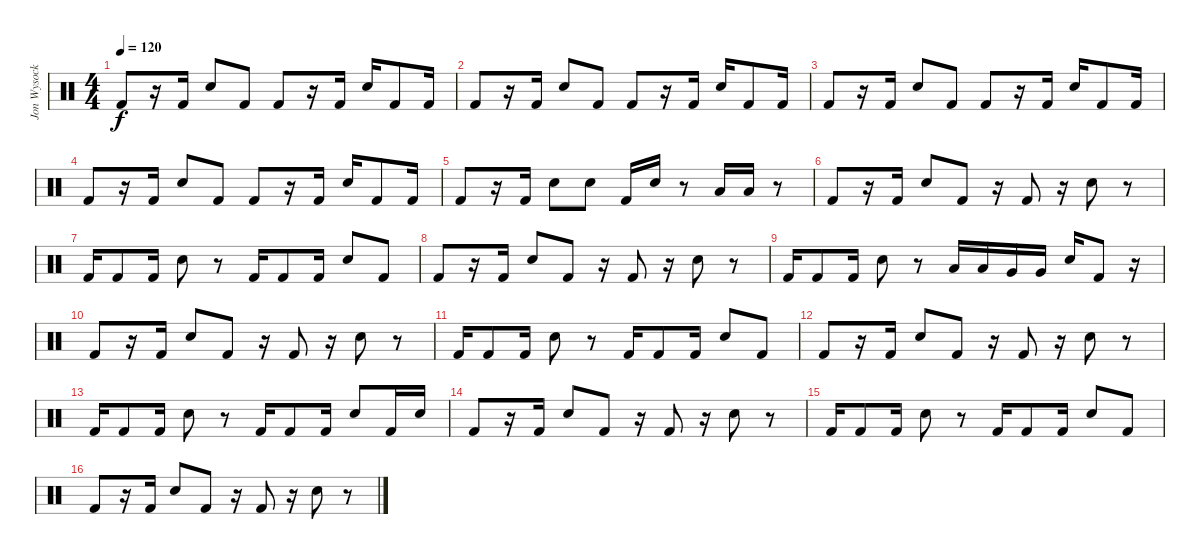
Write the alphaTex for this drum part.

\track ("Jon Wysocki" "Jon Wysock") {instrument percussion}
\staff {score}
\articulation defaults
\ts (4 4)
\tempo 120
\clef neutral
\ks c "Kick (hit) 2".8{dy f}
r.16 "Kick (hit) 2".16 "Electric Snare (hit)".8 "Kick (hit) 2".8 "Kick (hit) 2".8 r.16 "Kick (hit) 2".16 "Electric Snare (hit)".16 "Kick (hit) 2".8 "Kick (hit) 2".16 |
"Kick (hit) 2".8 r.16 "Kick (hit) 2".16 "Electric Snare (hit)".8 "Kick (hit) 2".8 "Kick (hit) 2".8 r.16 "Kick (hit) 2".16 "Electric Snare (hit)".16 "Kick (hit) 2".8 "Kick (hit) 2".16 |
"Kick (hit) 2".8 r.16 "Kick (hit) 2".16 "Electric Snare (hit)".8 "Kick (hit) 2".8 "Kick (hit) 2".8 r.16 "Kick (hit) 2".16 "Electric Snare (hit)".16 "Kick (hit) 2".8 "Kick (hit) 2".16 |
"Kick (hit) 2".8 r.16 "Kick (hit) 2".16 "Electric Snare (hit)".8 "Kick (hit) 2".8 "Kick (hit) 2".8 r.16 "Kick (hit) 2".16 "Electric Snare (hit)".16 "Kick (hit) 2".8 "Kick (hit) 2".16 |
"Kick (hit) 2".8 r.16 "Kick (hit) 2".16 "Electric Snare (hit)".8 "Electric Snare (hit)".8 "Kick (hit) 2".16 "Electric Snare (hit)".16 r.8 "Low Tom (hit)".16 "Low Tom (hit)".16 r.8 |
"Kick (hit) 2".8 r.16 "Kick (hit) 2".16 "Electric Snare (hit)".8 "Kick (hit) 2".8 r.16 "Kick (hit) 2".8 r.16 "Electric Snare (hit)".8 r.8 |
"Kick (hit) 2".16 "Kick (hit) 2".8 "Kick (hit) 2".16 "Electric Snare (hit)".8 r.8 "Kick (hit) 2".16 "Kick (hit) 2".8 "Kick (hit) 2".16 "Electric Snare (hit)".8 "Kick (hit) 2".8 |
"Kick (hit) 2".8 r.16 "Kick (hit) 2".16 "Electric Snare (hit)".8 "Kick (hit) 2".8 r.16 "Kick (hit) 2".8 r.16 "Electric Snare (hit)".8 r.8 |
"Kick (hit) 2".16 "Kick (hit) 2".8 "Kick (hit) 2".16 "Electric Snare (hit)".8 r.8 "Low Tom (hit)".16 "Low Tom (hit)".16 "Very Low Tom (hit)".16 "Very Low Tom (hit)".16 "Electric Snare (hit)".16 "Kick (hit) 2".8 r.16 |
"Kick (hit) 2".8 r.16 "Kick (hit) 2".16 "Electric Snare (hit)".8 "Kick (hit) 2".8 r.16 "Kick (hit) 2".8 r.16 "Electric Snare (hit)".8 r.8 |
"Kick (hit) 2".16 "Kick (hit) 2".8 "Kick (hit) 2".16 "Electric Snare (hit)".8 r.8 "Kick (hit) 2".16 "Kick (hit) 2".8 "Kick (hit) 2".16 "Electric Snare (hit)".8 "Kick (hit) 2".8 |
"Kick (hit) 2".8 r.16 "Kick (hit) 2".16 "Electric Snare (hit)".8 "Kick (hit) 2".8 r.16 "Kick (hit) 2".8 r.16 "Electric Snare (hit)".8 r.8 |
"Kick (hit) 2".16 "Kick (hit) 2".8 "Kick (hit) 2".16 "Electric Snare (hit)".8 r.8 "Kick (hit) 2".16 "Kick (hit) 2".8 "Kick (hit) 2".16 "Electric Snare (hit)".8 "Kick (hit) 2".16 "Electric Snare (hit)".16 |
"Kick (hit) 2".8 r.16 "Kick (hit) 2".16 "Electric Snare (hit)".8 "Kick (hit) 2".8 r.16 "Kick (hit) 2".8 r.16 "Electric Snare (hit)".8 r.8 |
"Kick (hit) 2".16 "Kick (hit) 2".8 "Kick (hit) 2".16 "Electric Snare (hit)".8 r.8 "Kick (hit) 2".16 "Kick (hit) 2".8 "Kick (hit) 2".16 "Electric Snare (hit)".8 "Kick (hit) 2".8 |
"Kick (hit) 2".8 r.16 "Kick (hit) 2".16 "Electric Snare (hit)".8 "Kick (hit) 2".8 r.16 "Kick (hit) 2".8 r.16 "Electric Snare (hit)".8 r.8
